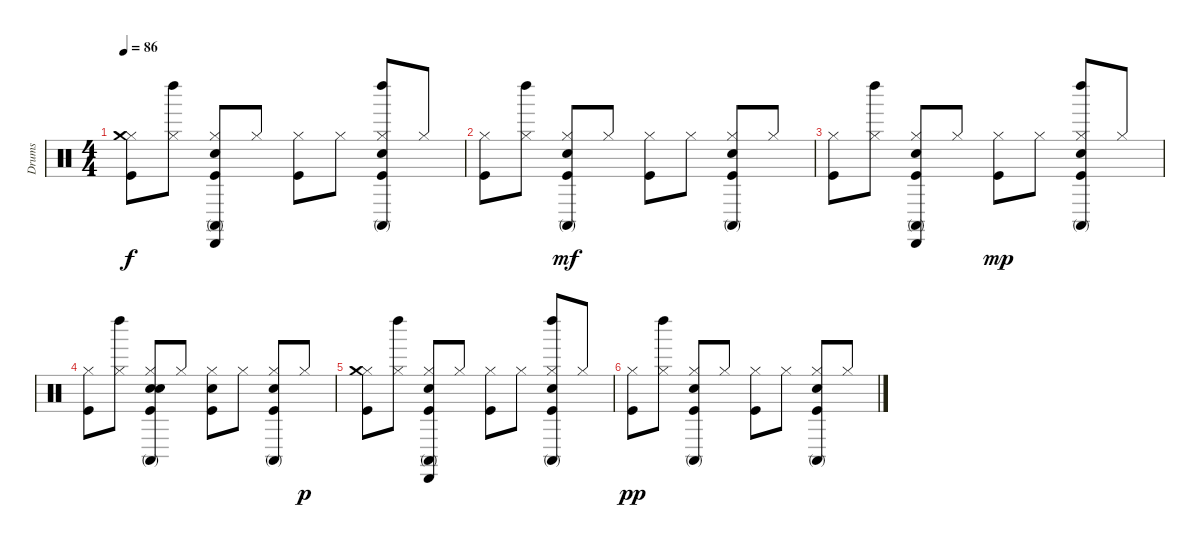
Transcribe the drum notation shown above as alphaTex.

\track ("Drums" "Drums") {instrument percussion}
\staff {score}
\articulation defaults
\ts (4 4)
\tempo 86
\clef neutral
\ks c
("Hi-Hat (closed)" "Crash medium (hit)" "Kick (hit)").8{dy f} ("Hi-Hat (closed)" "Left Maraca (hit)").8 ("Cabasa (hit)" "Snare (hit) 2" "Conga high (mute)" "Hi-Hat (closed)" "Kick (hit)").8 "Hi-Hat (closed)".8 ("Hi-Hat (closed)" "Kick (hit)").8 "Hi-Hat (closed)".8 ("Left Maraca (hit)" "Snare (hit) 2" "Conga high (mute)" "Hi-Hat (closed)" "Kick (hit)").8 "Hi-Hat (closed)".8 |
("Hi-Hat (closed)" "Kick (hit)").8 ("Hi-Hat (closed)" "Left Maraca (hit)").8 ("Snare (hit) 2" "Conga high (mute)" "Hi-Hat (closed)" "Kick (hit)").8{dy mf} "Hi-Hat (closed)".8 ("Hi-Hat (closed)" "Kick (hit)").8 "Hi-Hat (closed)".8 ("Snare (hit) 2" "Conga high (mute)" "Hi-Hat (closed)" "Kick (hit)").8 "Hi-Hat (closed)".8 |
("Hi-Hat (closed)" "Kick (hit)").8 ("Hi-Hat (closed)" "Left Maraca (hit)").8 ("Cabasa (hit)" "Snare (hit) 2" "Conga high (mute)" "Hi-Hat (closed)" "Kick (hit)").8 "Hi-Hat (closed)".8 ("Hi-Hat (closed)" "Kick (hit)").8{dy mp} "Hi-Hat (closed)".8 ("Left Maraca (hit)" "Snare (hit) 2" "Conga high (mute)" "Hi-Hat (closed)" "Kick (hit)").8 "Hi-Hat (closed)".8 |
("Hi-Hat (closed)" "Kick (hit)").8 ("Hi-Hat (closed)" "Left Maraca (hit)").8 ("Snare (hit) 2" "Conga high (mute)" "Hi-Hat (closed)" "Kick (hit)" "Snare (hit) 2").8 "Hi-Hat (closed)".8 ("Hi-Hat (closed)" "Kick (hit)" "Snare (hit) 2").8 "Hi-Hat (closed)".8 ("Snare (hit) 2" "Conga high (mute)" "Hi-Hat (closed)" "Kick (hit)").8 "Hi-Hat (closed)".8{dy p} |
("Hi-Hat (closed)" "Crash medium (hit)" "Kick (hit)").8 ("Hi-Hat (closed)" "Left Maraca (hit)").8 ("Cabasa (hit)" "Snare (hit) 2" "Conga high (mute)" "Hi-Hat (closed)" "Kick (hit)").8 "Hi-Hat (closed)".8 ("Hi-Hat (closed)" "Kick (hit)").8 "Hi-Hat (closed)".8 ("Left Maraca (hit)" "Snare (hit) 2" "Conga high (mute)" "Hi-Hat (closed)" "Kick (hit)").8 "Hi-Hat (closed)".8 |
("Hi-Hat (closed)" "Kick (hit)").8{dy pp} ("Hi-Hat (closed)" "Left Maraca (hit)").8 ("Snare (hit) 2" "Conga high (mute)" "Hi-Hat (closed)" "Kick (hit)").8 "Hi-Hat (closed)".8 ("Hi-Hat (closed)" "Kick (hit)").8 "Hi-Hat (closed)".8 ("Snare (hit) 2" "Conga high (mute)" "Hi-Hat (closed)" "Kick (hit)").8 "Hi-Hat (closed)".8
